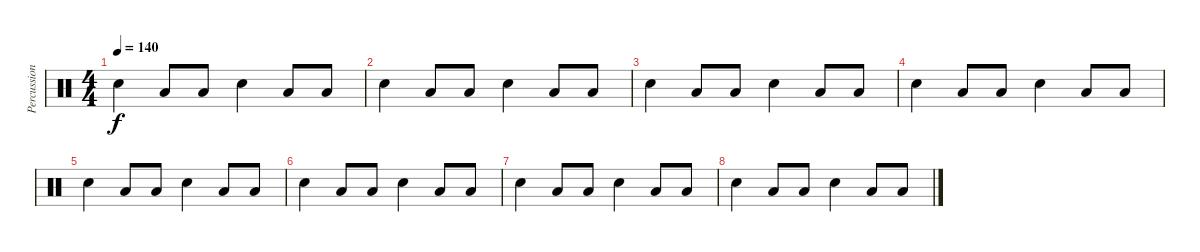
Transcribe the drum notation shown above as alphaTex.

\track ("Percussion" "Percussion") {instrument percussion}
\staff {score}
\articulation defaults
\ts (4 4)
\tempo 140
\clef neutral
\ks c "Electric Snare (hit)".4{dy f volume 5} "Low Floor Tom (hit)".8 "Low Floor Tom (hit)".8 "Electric Snare (hit)".4 "Low Floor Tom (hit)".8 "Low Floor Tom (hit)".8
|
"Electric Snare (hit)".4 "Low Floor Tom (hit)".8 "Low Floor Tom (hit)".8 "Electric Snare (hit)".4 "Low Floor Tom (hit)".8 "Low Floor Tom (hit)".8 |
"Electric Snare (hit)".4 "Low Floor Tom (hit)".8 "Low Floor Tom (hit)".8 "Electric Snare (hit)".4 "Low Floor Tom (hit)".8 "Low Floor Tom (hit)".8 |
"Electric Snare (hit)".4 "Low Floor Tom (hit)".8 "Low Floor Tom (hit)".8 "Electric Snare (hit)".4 "Low Floor Tom (hit)".8 "Low Floor Tom (hit)".8 |
"Electric Snare (hit)".4{volume 2} "Low Floor Tom (hit)".8 "Low Floor Tom (hit)".8 "Electric Snare (hit)".4 "Low Floor Tom (hit)".8 "Low Floor Tom (hit)".8 |
"Electric Snare (hit)".4 "Low Floor Tom (hit)".8 "Low Floor Tom (hit)".8 "Electric Snare (hit)".4 "Low Floor Tom (hit)".8 "Low Floor Tom (hit)".8 |
"Electric Snare (hit)".4 "Low Floor Tom (hit)".8 "Low Floor Tom (hit)".8 "Electric Snare (hit)".4 "Low Floor Tom (hit)".8 "Low Floor Tom (hit)".8 |
"Electric Snare (hit)".4 "Low Floor Tom (hit)".8 "Low Floor Tom (hit)".8 "Electric Snare (hit)".4 "Low Floor Tom (hit)".8 "Low Floor Tom (hit)".8
